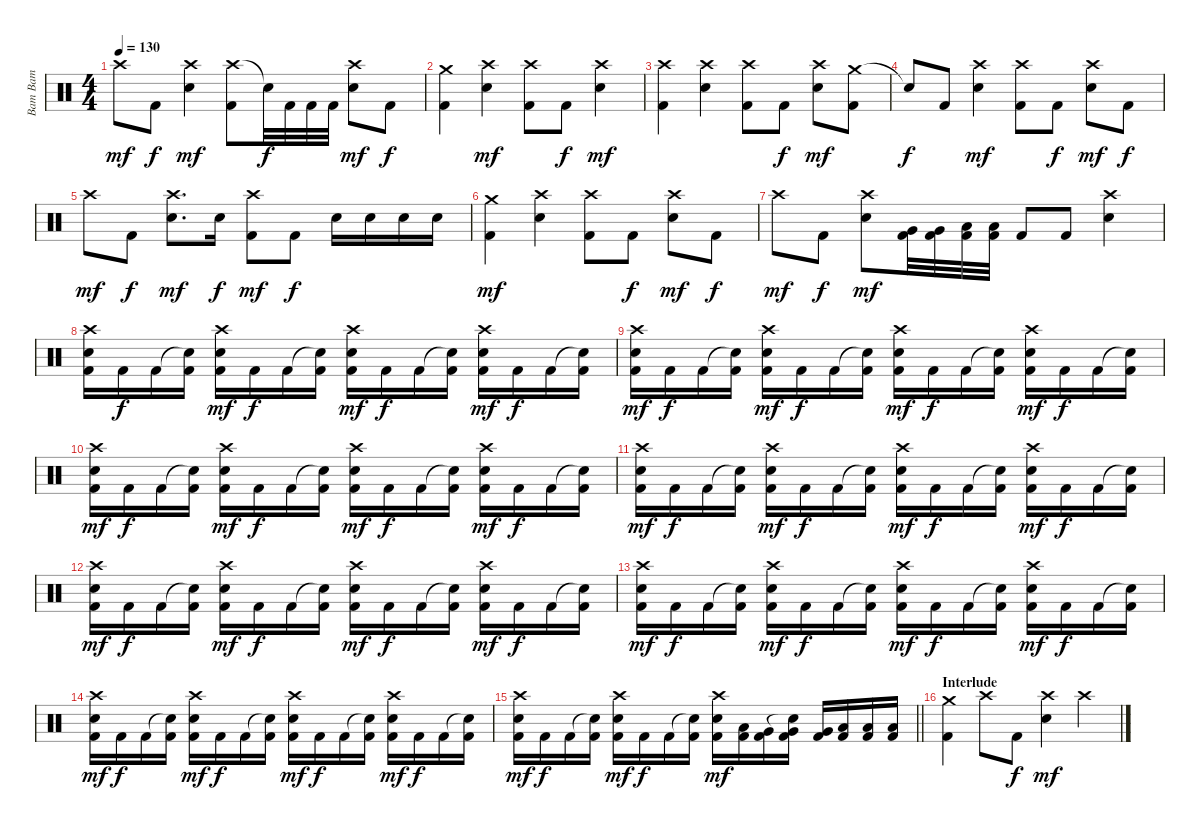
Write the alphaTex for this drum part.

\track ("Bam Bam" "Bam Bam") {instrument percussion}
\staff {score}
\articulation defaults
\ts (4 4)
\tempo 130
\clef neutral
\ks c "Crash high (hit)".8{dy mf} "Kick (hit) 2".8{dy f}
("Crash high (hit)" "Electric Snare (hit)").4{dy mf} ("Crash high (hit)" "Kick (hit) 2").8 "Snare (hit)"{t}.32{dy f} "Kick (hit) 2".32 "Kick (hit) 2".32 "Kick (hit) 2".32 ("Crash high (hit)" "Electric Snare (hit)").8{dy mf} "Kick (hit) 2".8{dy f} |
("Crash medium (hit)" "Kick (hit) 2").4 ("Crash high (hit)" "Electric Snare (hit)").4{dy mf} ("Crash high (hit)" "Kick (hit) 2").8 "Kick (hit) 2".8{dy f} ("Crash high (hit)" "Electric Snare (hit)").4{dy mf} |
("Crash high (hit)" "Kick (hit) 2").4 ("Crash high (hit)" "Electric Snare (hit)").4 ("Crash high (hit)" "Kick (hit) 2").8 "Kick (hit) 2".8{dy f} ("Crash high (hit)" "Electric Snare (hit)").8{dy mf} ("Crash medium (hit)" "Kick (hit) 2").8 |
"Snare (hit)"{t}.8{dy f} "Kick (hit) 2".8 ("Crash high (hit)" "Electric Snare (hit)").4{dy mf} ("Crash high (hit)" "Kick (hit) 2").8 "Kick (hit) 2".8{dy f} ("Crash high (hit)" "Electric Snare (hit)").8{dy mf} "Kick (hit) 2".8{dy f} |
"Crash high (hit)".8{dy mf} "Kick (hit) 2".8{dy f} ("Crash high (hit)" "Electric Snare (hit)").8{d dy mf} "Electric Snare (hit)".16{dy f} ("Crash high (hit)" "Kick (hit) 2").8{dy mf} "Kick (hit) 2".8{dy f} "Electric Snare (hit)".16 "Electric Snare (hit)".16 "Electric Snare (hit)".16 "Electric Snare (hit)".16 |
("Crash medium (hit)" "Kick (hit) 2").4{dy mf} ("Crash high (hit)" "Electric Snare (hit)").4 ("Crash high (hit)" "Kick (hit) 2").8 "Kick (hit) 2".8{dy f} ("Crash high (hit)" "Electric Snare (hit)").8{dy mf} "Kick (hit) 2".8{dy f} |
"Crash high (hit)".8{dy mf} "Kick (hit) 2".8{dy f} ("Crash high (hit)" "Electric Snare (hit)").8{dy mf} ("Very Low Tom (hit)" "Kick (hit) 2").32 ("Very Low Tom (hit)" "Kick (hit) 2").32 ("Low Floor Tom (hit)" "Kick (hit) 2").32 ("Low Floor Tom (hit)" "Kick (hit) 2").32 "Kick (hit) 2".8 "Kick (hit) 2".8 ("Crash high (hit)" "Electric Snare (hit)").4 |
("Crash high (hit)" "Electric Snare (hit)" "Kick (hit) 2").16 "Kick (hit) 2".16{dy f} "Kick (hit) 2".16 ("Snare (hit)"{t} "Kick (hit) 2").16 ("Crash high (hit)" "Electric Snare (hit)" "Kick (hit) 2").16{dy mf} "Kick (hit) 2".16{dy f} "Kick (hit) 2".16 ("Snare (hit)"{t} "Kick (hit) 2").16 ("Crash high (hit)" "Electric Snare (hit)" "Kick (hit) 2").16{dy mf} "Kick (hit) 2".16{dy f} "Kick (hit) 2".16 ("Snare (hit)"{t} "Kick (hit) 2").16 ("Crash high (hit)" "Electric Snare (hit)" "Kick (hit) 2").16{dy mf} "Kick (hit) 2".16{dy f} "Kick (hit) 2".16 ("Snare (hit)"{t} "Kick (hit) 2").16 |
("Crash high (hit)" "Electric Snare (hit)" "Kick (hit) 2").16{dy mf} "Kick (hit) 2".16{dy f} "Kick (hit) 2".16 ("Snare (hit)"{t} "Kick (hit) 2").16 ("Crash high (hit)" "Electric Snare (hit)" "Kick (hit) 2").16{dy mf} "Kick (hit) 2".16{dy f} "Kick (hit) 2".16 ("Snare (hit)"{t} "Kick (hit) 2").16 ("Crash high (hit)" "Electric Snare (hit)" "Kick (hit) 2").16{dy mf} "Kick (hit) 2".16{dy f} "Kick (hit) 2".16 ("Snare (hit)"{t} "Kick (hit) 2").16 ("Crash high (hit)" "Electric Snare (hit)" "Kick (hit) 2").16{dy mf} "Kick (hit) 2".16{dy f} "Kick (hit) 2".16 ("Snare (hit)"{t} "Kick (hit) 2").16 |
("Crash high (hit)" "Electric Snare (hit)" "Kick (hit) 2").16{dy mf} "Kick (hit) 2".16{dy f} "Kick (hit) 2".16 ("Snare (hit)"{t} "Kick (hit) 2").16 ("Crash high (hit)" "Electric Snare (hit)" "Kick (hit) 2").16{dy mf} "Kick (hit) 2".16{dy f} "Kick (hit) 2".16 ("Snare (hit)"{t} "Kick (hit) 2").16 ("Crash high (hit)" "Electric Snare (hit)" "Kick (hit) 2").16{dy mf} "Kick (hit) 2".16{dy f} "Kick (hit) 2".16 ("Snare (hit)"{t} "Kick (hit) 2").16 ("Crash high (hit)" "Electric Snare (hit)" "Kick (hit) 2").16{dy mf} "Kick (hit) 2".16{dy f} "Kick (hit) 2".16 ("Snare (hit)"{t} "Kick (hit) 2").16 |
("Crash high (hit)" "Electric Snare (hit)" "Kick (hit) 2").16{dy mf} "Kick (hit) 2".16{dy f} "Kick (hit) 2".16 ("Snare (hit)"{t} "Kick (hit) 2").16 ("Crash high (hit)" "Electric Snare (hit)" "Kick (hit) 2").16{dy mf} "Kick (hit) 2".16{dy f} "Kick (hit) 2".16 ("Snare (hit)"{t} "Kick (hit) 2").16 ("Crash high (hit)" "Electric Snare (hit)" "Kick (hit) 2").16{dy mf} "Kick (hit) 2".16{dy f} "Kick (hit) 2".16 ("Snare (hit)"{t} "Kick (hit) 2").16 ("Crash high (hit)" "Electric Snare (hit)" "Kick (hit) 2").16{dy mf} "Kick (hit) 2".16{dy f} "Kick (hit) 2".16 ("Snare (hit)"{t} "Kick (hit) 2").16 |
("Crash high (hit)" "Electric Snare (hit)" "Kick (hit) 2").16{dy mf} "Kick (hit) 2".16{dy f} "Kick (hit) 2".16 ("Snare (hit)"{t} "Kick (hit) 2").16 ("Crash high (hit)" "Electric Snare (hit)" "Kick (hit) 2").16{dy mf} "Kick (hit) 2".16{dy f} "Kick (hit) 2".16 ("Snare (hit)"{t} "Kick (hit) 2").16 ("Crash high (hit)" "Electric Snare (hit)" "Kick (hit) 2").16{dy mf} "Kick (hit) 2".16{dy f} "Kick (hit) 2".16 ("Snare (hit)"{t} "Kick (hit) 2").16 ("Crash high (hit)" "Electric Snare (hit)" "Kick (hit) 2").16{dy mf} "Kick (hit) 2".16{dy f} "Kick (hit) 2".16 ("Snare (hit)"{t} "Kick (hit) 2").16 |
("Crash high (hit)" "Electric Snare (hit)" "Kick (hit) 2").16{dy mf} "Kick (hit) 2".16{dy f} "Kick (hit) 2".16 ("Snare (hit)"{t} "Kick (hit) 2").16 ("Crash high (hit)" "Electric Snare (hit)" "Kick (hit) 2").16{dy mf} "Kick (hit) 2".16{dy f} "Kick (hit) 2".16 ("Snare (hit)"{t} "Kick (hit) 2").16 ("Crash high (hit)" "Electric Snare (hit)" "Kick (hit) 2").16{dy mf} "Kick (hit) 2".16{dy f} "Kick (hit) 2".16 ("Snare (hit)"{t} "Kick (hit) 2").16 ("Crash high (hit)" "Electric Snare (hit)" "Kick (hit) 2").16{dy mf} "Kick (hit) 2".16{dy f} "Kick (hit) 2".16 ("Snare (hit)"{t} "Kick (hit) 2").16 |
("Crash high (hit)" "Electric Snare (hit)" "Kick (hit) 2").16{dy mf} "Kick (hit) 2".16{dy f} "Kick (hit) 2".16 ("Snare (hit)"{t} "Kick (hit) 2").16 ("Crash high (hit)" "Electric Snare (hit)" "Kick (hit) 2").16{dy mf} "Kick (hit) 2".16{dy f} "Kick (hit) 2".16 ("Snare (hit)"{t} "Kick (hit) 2").16 ("Crash high (hit)" "Electric Snare (hit)" "Kick (hit) 2").16{dy mf} "Kick (hit) 2".16{dy f} "Kick (hit) 2".16 ("Snare (hit)"{t} "Kick (hit) 2").16 ("Crash high (hit)" "Electric Snare (hit)" "Kick (hit) 2").16{dy mf} "Kick (hit) 2".16{dy f} "Kick (hit) 2".16 ("Snare (hit)"{t} "Kick (hit) 2").16 |
\barLineRight lightlight
("Crash high (hit)" "Electric Snare (hit)" "Kick (hit) 2").16{dy mf} "Kick (hit) 2".16{dy f} "Kick (hit) 2".16 ("Snare (hit)"{t} "Kick (hit) 2").16 ("Crash high (hit)" "Electric Snare (hit)" "Kick (hit) 2").16{dy mf} "Kick (hit) 2".16{dy f} "Kick (hit) 2".16 ("Snare (hit)"{t} "Kick (hit) 2").16 ("Crash high (hit)" "Electric Snare (hit)" "Kick (hit) 2").16{dy mf} ("Low Tom (hit)" "Kick (hit) 2").16 ("Very Low Tom (hit)" "Kick (hit) 2").16 ("Snare (hit)"{t} "Very Low Tom (hit)" "Kick (hit) 2").16 ("Very Low Tom (hit)" "Kick (hit) 2").16 ("Low Floor Tom (hit)" "Kick (hit) 2").16 ("Low Floor Tom (hit)" "Kick (hit) 2").16 ("Low Floor Tom (hit)" "Kick (hit) 2").16 |
\section ("" "Interlude")
("Crash medium (hit)" "Kick (hit) 2").4 "Crash high (hit)".8 "Kick (hit) 2".8{dy f} ("Crash high (hit)" "Electric Snare (hit)").4{dy mf} "Crash high (hit)".4
